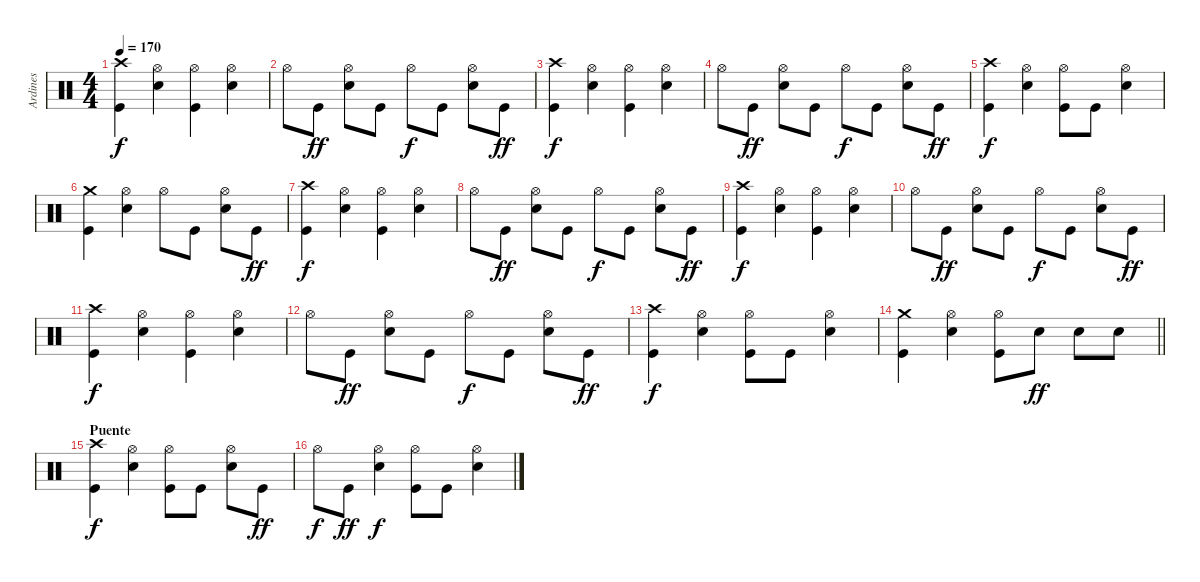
\track ("Ardines" "Ardines") {instrument percussion}
\staff {score}
\articulation defaults
\ts (4 4)
\tempo 170
\clef neutral
\ks c
("Kick (hit)" "Crash high (hit)").4{dy f} ("Snare (hit) 2" "Hi-Hat (open)").4 ("Kick (hit)" "Hi-Hat (open)").4 ("Snare (hit) 2" "Hi-Hat (open)").4 |
"Hi-Hat (open)".8 "Kick (hit)".8{dy ff} ("Snare (hit) 2" "Hi-Hat (open)").8 "Kick (hit)".8 "Hi-Hat (open)".8{dy f} "Kick (hit)".8 ("Snare (hit) 2" "Hi-Hat (open)").8 "Kick (hit)".8{dy ff} |
("Kick (hit)" "Crash high (hit)").4{dy f} ("Snare (hit) 2" "Hi-Hat (open)").4 ("Kick (hit)" "Hi-Hat (open)").4 ("Snare (hit) 2" "Hi-Hat (open)").4 |
"Hi-Hat (open)".8 "Kick (hit)".8{dy ff} ("Snare (hit) 2" "Hi-Hat (open)").8 "Kick (hit)".8 "Hi-Hat (open)".8{dy f} "Kick (hit)".8 ("Snare (hit) 2" "Hi-Hat (open)").8 "Kick (hit)".8{dy ff} |
("Kick (hit)" "Crash high (hit)").4{dy f} ("Snare (hit) 2" "Hi-Hat (open)").4 ("Kick (hit)" "Hi-Hat (open)").8 "Kick (hit)".8 ("Snare (hit) 2" "Hi-Hat (open)").4 |
("Kick (hit)" "Crash medium (hit)").4 ("Snare (hit) 2" "Hi-Hat (open)").4 "Hi-Hat (open)".8 "Kick (hit)".8 ("Snare (hit) 2" "Hi-Hat (open)").8 "Kick (hit)".8{dy ff} |
("Kick (hit)" "Crash high (hit)").4{dy f} ("Snare (hit) 2" "Hi-Hat (open)").4 ("Kick (hit)" "Hi-Hat (open)").4 ("Snare (hit) 2" "Hi-Hat (open)").4 |
"Hi-Hat (open)".8 "Kick (hit)".8{dy ff} ("Snare (hit) 2" "Hi-Hat (open)").8 "Kick (hit)".8 "Hi-Hat (open)".8{dy f} "Kick (hit)".8 ("Snare (hit) 2" "Hi-Hat (open)").8 "Kick (hit)".8{dy ff} |
("Kick (hit)" "Crash high (hit)").4{dy f} ("Snare (hit) 2" "Hi-Hat (open)").4 ("Kick (hit)" "Hi-Hat (open)").4 ("Snare (hit) 2" "Hi-Hat (open)").4 |
"Hi-Hat (open)".8 "Kick (hit)".8{dy ff} ("Snare (hit) 2" "Hi-Hat (open)").8 "Kick (hit)".8 "Hi-Hat (open)".8{dy f} "Kick (hit)".8 ("Snare (hit) 2" "Hi-Hat (open)").8 "Kick (hit)".8{dy ff} |
("Kick (hit)" "Crash high (hit)").4{dy f} ("Snare (hit) 2" "Hi-Hat (open)").4 ("Kick (hit)" "Hi-Hat (open)").4 ("Snare (hit) 2" "Hi-Hat (open)").4 |
"Hi-Hat (open)".8 "Kick (hit)".8{dy ff} ("Snare (hit) 2" "Hi-Hat (open)").8 "Kick (hit)".8 "Hi-Hat (open)".8{dy f} "Kick (hit)".8 ("Snare (hit) 2" "Hi-Hat (open)").8 "Kick (hit)".8{dy ff} |
("Kick (hit)" "Crash high (hit)").4{dy f} ("Snare (hit) 2" "Hi-Hat (open)").4 ("Kick (hit)" "Hi-Hat (open)").8 "Kick (hit)".8 ("Snare (hit) 2" "Hi-Hat (open)").4 |
\barLineRight lightlight
("Kick (hit)" "Crash medium (hit)").4 ("Snare (hit) 2" "Hi-Hat (open)").4 ("Kick (hit)" "Hi-Hat (open)").8 "Snare (hit) 2".8{dy ff} "Snare (hit) 2".8 "Snare (hit) 2".8 |
\section ("" "Puente")
("Kick (hit)" "Crash high (hit)").4{dy f} ("Snare (hit) 2" "Hi-Hat (open)").4 ("Kick (hit)" "Hi-Hat (open)").8 "Kick (hit)".8 ("Snare (hit) 2" "Hi-Hat (open)").8 "Kick (hit)".8{dy ff} |
"Hi-Hat (open)".8{dy f} "Kick (hit)".8{dy ff} ("Snare (hit) 2" "Hi-Hat (open)").4{dy f} ("Kick (hit)" "Hi-Hat (open)").8 "Kick (hit)".8 ("Snare (hit) 2" "Hi-Hat (open)").4
